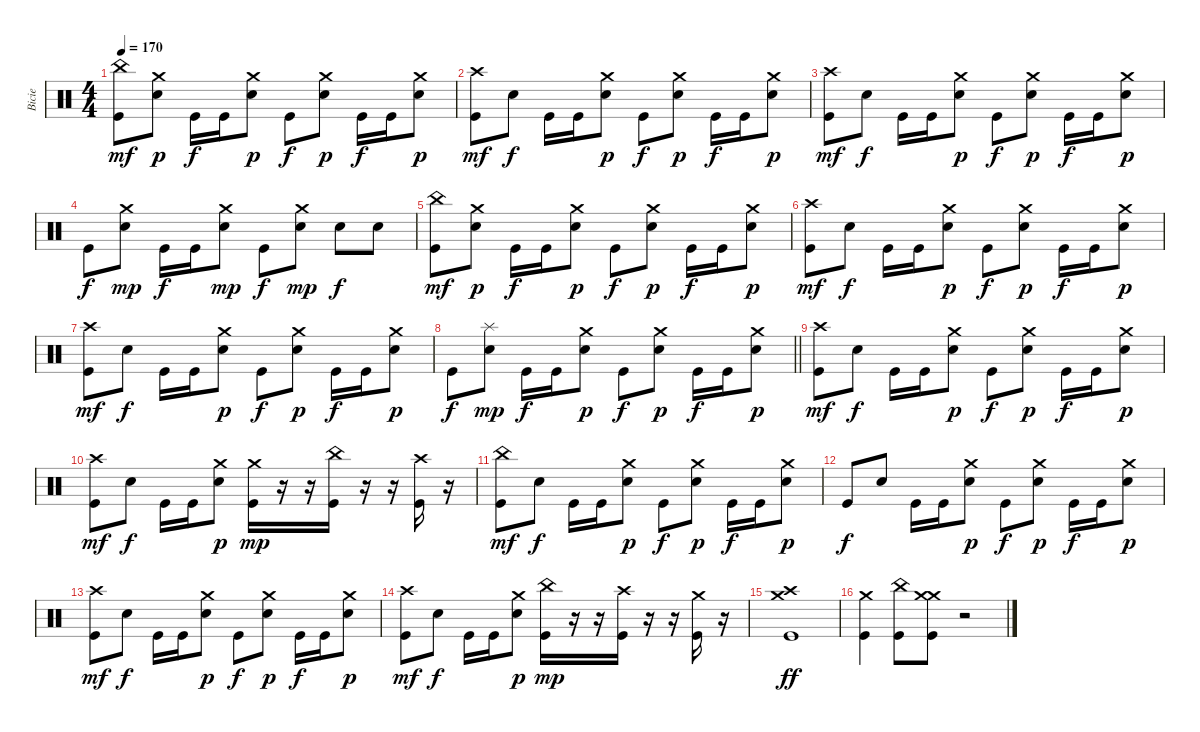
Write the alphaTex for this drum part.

\track ("Bicie" "Bicie") {instrument percussion}
\staff {score}
\articulation defaults
\ts (4 4)
\tempo 170
\clef neutral
\ks c
("Kick (hit)" "China (hit)").8{dy mf} ("Snare (hit) 2" "Crash medium (hit)").8{dy p} "Kick (hit)".16{dy f} "Kick (hit)".16 ("Snare (hit) 2" "Crash medium (hit)").8{dy p} "Kick (hit)".8{dy f} ("Snare (hit) 2" "Crash medium (hit)").8{dy p} "Kick (hit)".16{dy f} "Kick (hit)".16 ("Snare (hit) 2" "Crash medium (hit)").8{dy p} |
("Kick (hit)" "Crash high (hit)").8{dy mf} "Snare (hit) 2".8{dy f} "Kick (hit)".16 "Kick (hit)".16 ("Snare (hit) 2" "Crash medium (hit)").8{dy p} "Kick (hit)".8{dy f} ("Snare (hit) 2" "Crash medium (hit)").8{dy p} "Kick (hit)".16{dy f} "Kick (hit)".16 ("Snare (hit) 2" "Crash medium (hit)").8{dy p} |
("Kick (hit)" "Crash high (hit)").8{dy mf} "Snare (hit) 2".8{dy f} "Kick (hit)".16 "Kick (hit)".16 ("Snare (hit) 2" "Crash medium (hit)").8{dy p} "Kick (hit)".8{dy f} ("Snare (hit) 2" "Crash medium (hit)").8{dy p} "Kick (hit)".16{dy f} "Kick (hit)".16 ("Snare (hit) 2" "Crash medium (hit)").8{dy p} |
"Kick (hit)".8{dy f} ("Snare (hit) 2" "Crash medium (hit)").8{dy mp} "Kick (hit)".16{dy f} "Kick (hit)".16 ("Snare (hit) 2" "Crash medium (hit)").8{dy mp} "Kick (hit)".8{dy f} ("Snare (hit) 2" "Crash medium (hit)").8{dy mp} "Snare (hit) 2".8{dy f} "Snare (hit) 2".8 |
("Kick (hit)" "China (hit)").8{dy mf} ("Snare (hit) 2" "Crash medium (hit)").8{dy p} "Kick (hit)".16{dy f} "Kick (hit)".16 ("Snare (hit) 2" "Crash medium (hit)").8{dy p} "Kick (hit)".8{dy f} ("Snare (hit) 2" "Crash medium (hit)").8{dy p} "Kick (hit)".16{dy f} "Kick (hit)".16 ("Snare (hit) 2" "Crash medium (hit)").8{dy p} |
("Kick (hit)" "Crash high (hit)").8{dy mf} "Snare (hit) 2".8{dy f} "Kick (hit)".16 "Kick (hit)".16 ("Snare (hit) 2" "Crash medium (hit)").8{dy p} "Kick (hit)".8{dy f} ("Snare (hit) 2" "Crash medium (hit)").8{dy p} "Kick (hit)".16{dy f} "Kick (hit)".16 ("Snare (hit) 2" "Crash medium (hit)").8{dy p} |
("Kick (hit)" "Crash high (hit)").8{dy mf} "Snare (hit) 2".8{dy f} "Kick (hit)".16 "Kick (hit)".16 ("Snare (hit) 2" "Crash medium (hit)").8{dy p} "Kick (hit)".8{dy f} ("Snare (hit) 2" "Crash medium (hit)").8{dy p} "Kick (hit)".16{dy f} "Kick (hit)".16 ("Snare (hit) 2" "Crash medium (hit)").8{dy p} |
\barLineRight lightlight "Kick (hit)".8{dy f}
("Snare (hit) 2" "Splash (hit)").8{dy mp} "Kick (hit)".16{dy f} "Kick (hit)".16 ("Snare (hit) 2" "Crash medium (hit)").8{dy p} "Kick (hit)".8{dy f} ("Snare (hit) 2" "Crash medium (hit)").8{dy p} "Kick (hit)".16{dy f} "Kick (hit)".16 ("Snare (hit) 2" "Crash medium (hit)").8{dy p} |
("Kick (hit)" "Crash high (hit)").8{dy mf} "Snare (hit) 2".8{dy f} "Kick (hit)".16 "Kick (hit)".16 ("Snare (hit) 2" "Crash medium (hit)").8{dy p} "Kick (hit)".8{dy f} ("Snare (hit) 2" "Crash medium (hit)").8{dy p} "Kick (hit)".16{dy f} "Kick (hit)".16 ("Snare (hit) 2" "Crash medium (hit)").8{dy p} |
("Kick (hit)" "Crash high (hit)").8{dy mf} "Snare (hit) 2".8{dy f} "Kick (hit)".16 "Kick (hit)".16 ("Snare (hit) 2" "Crash medium (hit)").8{dy p} ("Kick (hit)" "Crash medium (hit)").16{dy mp} r.16 r.16 ("Kick (hit)" "China (hit)").16 r.16 r.16 ("Kick (hit)" "Crash high (hit)").16 r.16 |
("Kick (hit)" "China (hit)").8{dy mf} "Snare (hit) 2".8{dy f} "Kick (hit)".16 "Kick (hit)".16 ("Snare (hit) 2" "Crash medium (hit)").8{dy p} "Kick (hit)".8{dy f} ("Snare (hit) 2" "Crash medium (hit)").8{dy p} "Kick (hit)".16{dy f} "Kick (hit)".16 ("Snare (hit) 2" "Crash medium (hit)").8{dy p} |
"Kick (hit)".8{dy f} "Snare (hit) 2".8 "Kick (hit)".16 "Kick (hit)".16 ("Snare (hit) 2" "Crash medium (hit)").8{dy p} "Kick (hit)".8{dy f} ("Snare (hit) 2" "Crash medium (hit)").8{dy p} "Kick (hit)".16{dy f} "Kick (hit)".16 ("Snare (hit) 2" "Crash medium (hit)").8{dy p} |
("Kick (hit)" "Crash high (hit)").8{dy mf} "Snare (hit) 2".8{dy f} "Kick (hit)".16 "Kick (hit)".16 ("Snare (hit) 2" "Crash medium (hit)").8{dy p} "Kick (hit)".8{dy f} ("Snare (hit) 2" "Crash medium (hit)").8{dy p} "Kick (hit)".16{dy f} "Kick (hit)".16 ("Snare (hit) 2" "Crash medium (hit)").8{dy p} |
("Kick (hit)" "Crash high (hit)").8{dy mf} "Snare (hit) 2".8{dy f} "Kick (hit)".16 "Kick (hit)".16 ("Snare (hit) 2" "Crash medium (hit)").8{dy p} ("Kick (hit)" "China (hit)").16{dy mp} r.16 r.16 ("Kick (hit)" "Crash high (hit)").16 r.16 r.16 ("Kick (hit)" "Crash medium (hit)").16 r.16 |
("Kick (hit)" "Crash medium (hit)" "Crash high (hit)").1{dy ff} |
("Kick (hit)" "Crash medium (hit)").4 ("Kick (hit)" "China (hit)").8 ("Kick (hit)" "Crash medium (hit)" "Crash medium (hit)").8 r.2
